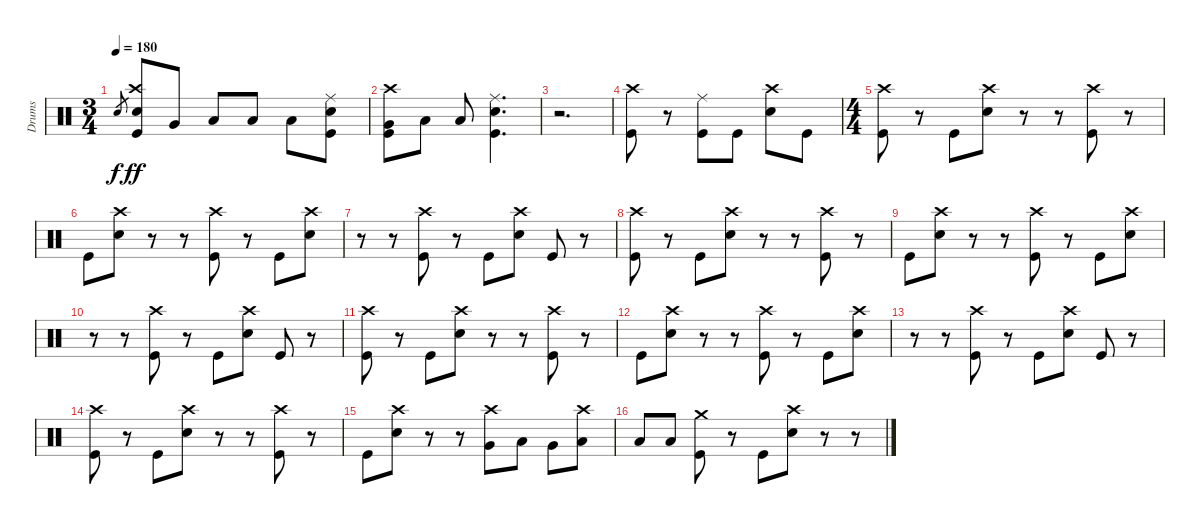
\track ("Drums" "Drums") {instrument percussion}
\staff {score}
\articulation defaults
\ts (3 4)
\tempo 180
\clef neutral
\ks c "Snare (hit) 2".8{gr dy f}
("Crash high (hit)" "Snare (hit) 2" "Kick (hit)").8{dy ff} "Very Low Tom (hit)".8 "Low Floor Tom (hit)".8 "Low Floor Tom (hit)".8 "Low Floor Tom (hit)".8 ("Ride (middle)" "Snare (hit) 2" "Kick (hit)").8 |
("Crash high (hit)" "Very Low Tom (hit)" "Kick (hit)").8 "Low Floor Tom (hit)".8 "Low Floor Tom (hit)".8 ("Ride (middle)" "Snare (hit) 2" "Kick (hit)").4{d} |
r.2{d} |
("Crash high (hit)" "Kick (hit)").8 r.8 ("Ride (middle)" "Kick (hit)").8 "Kick (hit)".8 ("Crash high (hit)" "Snare (hit) 2").8 "Kick (hit)".8 |
\ts (4 4)
("Crash high (hit)" "Kick (hit)").8 r.8 "Kick (hit)".8 ("Crash high (hit)" "Snare (hit) 2").8 r.8 r.8 ("Crash high (hit)" "Kick (hit)").8 r.8 |
"Kick (hit)".8 ("Crash high (hit)" "Snare (hit) 2").8 r.8 r.8 ("Crash high (hit)" "Kick (hit)").8 r.8 "Kick (hit)".8 ("Crash high (hit)" "Snare (hit) 2").8 |
r.8 r.8 ("Crash high (hit)" "Kick (hit)").8 r.8 "Kick (hit)".8 ("Crash high (hit)" "Snare (hit) 2").8 "Kick (hit)".8 r.8 |
("Crash high (hit)" "Kick (hit)").8 r.8 "Kick (hit)".8 ("Crash high (hit)" "Snare (hit) 2").8 r.8 r.8 ("Crash high (hit)" "Kick (hit)").8 r.8 |
"Kick (hit)".8 ("Crash high (hit)" "Snare (hit) 2").8 r.8 r.8 ("Crash high (hit)" "Kick (hit)").8 r.8 "Kick (hit)".8 ("Crash high (hit)" "Snare (hit) 2").8 |
r.8 r.8 ("Crash high (hit)" "Kick (hit)").8 r.8 "Kick (hit)".8 ("Crash high (hit)" "Snare (hit) 2").8 "Kick (hit)".8 r.8 |
("Crash high (hit)" "Kick (hit)").8 r.8 "Kick (hit)".8 ("Crash high (hit)" "Snare (hit) 2").8 r.8 r.8 ("Crash high (hit)" "Kick (hit)").8 r.8 |
"Kick (hit)".8 ("Crash high (hit)" "Snare (hit) 2").8 r.8 r.8 ("Crash high (hit)" "Kick (hit)").8 r.8 "Kick (hit)".8 ("Crash high (hit)" "Snare (hit) 2").8 |
r.8 r.8 ("Crash high (hit)" "Kick (hit)").8 r.8 "Kick (hit)".8 ("Crash high (hit)" "Snare (hit) 2").8 "Kick (hit)".8 r.8 |
("Crash high (hit)" "Kick (hit)").8 r.8 "Kick (hit)".8 ("Crash high (hit)" "Snare (hit) 2").8 r.8 r.8 ("Crash high (hit)" "Kick (hit)").8 r.8 |
"Kick (hit)".8 ("Crash high (hit)" "Snare (hit) 2").8 r.8 r.8 ("Crash high (hit)" "Very Low Tom (hit)").8 "Low Floor Tom (hit)".8 "Very Low Tom (hit)".8 ("Crash high (hit)" "Low Floor Tom (hit)").8 |
"Low Floor Tom (hit)".8 "Low Floor Tom (hit)".8 ("Crash medium (hit)" "Kick (hit)").8 r.8 "Kick (hit)".8 ("Crash high (hit)" "Snare (hit) 2").8 r.8 r.8
